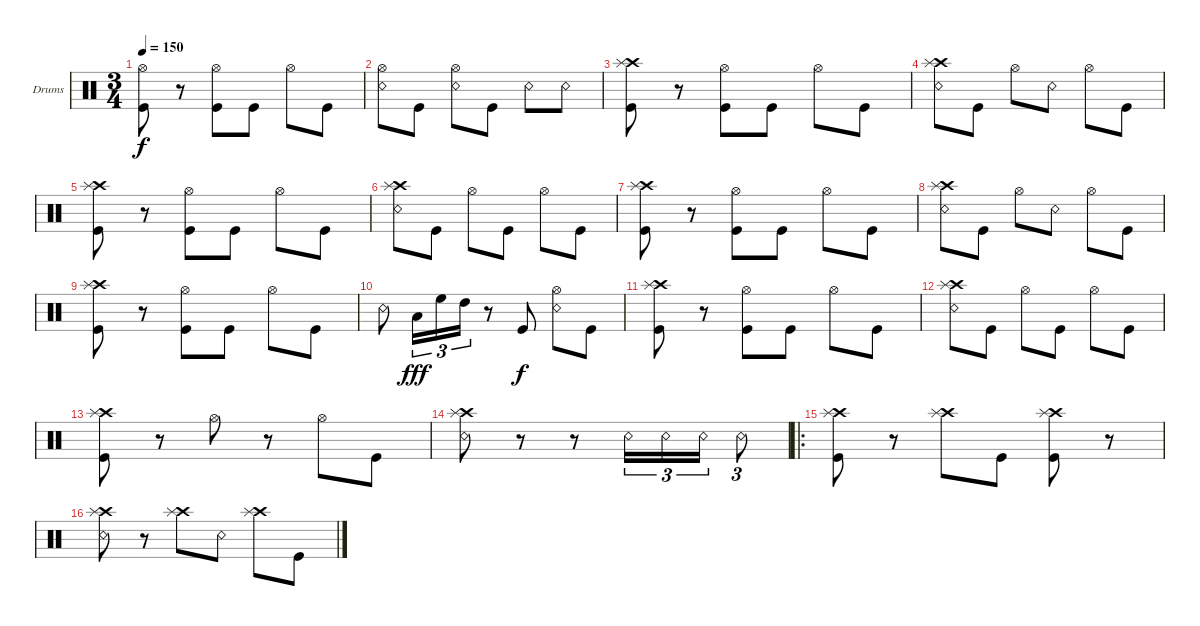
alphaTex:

\defaultSystemsLayout 4
\bracketExtendMode groupsimilarinstruments
\firstSystemTrackNameOrientation horizontal
\otherSystemsTrackNameOrientation horizontal
\track ("Scott" "Drums") {mute instrument percussion}
\staff {score}
\articulation defaults
\ts (3 4)
\tempo 150
\clef neutral
\scale
0.333333
\ks c
("Kick (hit)" "Hi-Hat (open)").8{dy f} r.8 ("Kick (hit)" "Hi-Hat (open)").8 "Kick (hit)".8 "Hi-Hat (open)".8 "Kick (hit)".8 |
\scale
0.333333 ("Snare (rim shot)" "Hi-Hat (open)").8 "Kick (hit)".8 ("Snare (rim shot)" "Hi-Hat (open)").8 "Kick (hit)".8 "Snare (rim shot)".8 "Snare (rim shot)".8 |
\scale
0.333333 ("Kick (hit)" "Crash high (hit)" "Splash (hit)").8 r.8 ("Kick (hit)" "Hi-Hat (open)").8 "Kick (hit)".8 "Hi-Hat (open)".8 "Kick (hit)".8 |
\scale
0.333333 ("Snare (rim shot)" "Crash high (hit)" "Splash (hit)").8 "Kick (hit)".8 "Hi-Hat (open)".8 "Snare (rim shot)".8 "Hi-Hat (open)".8 "Kick (hit)".8 |
\scale
0.333333 ("Kick (hit)" "Crash high (hit)" "Splash (hit)").8 r.8 ("Kick (hit)" "Hi-Hat (open)").8 "Kick (hit)".8 "Hi-Hat (open)".8 "Kick (hit)".8 |
\scale
0.333333 ("Snare (rim shot)" "Crash high (hit)" "Splash (hit)").8 "Kick (hit)".8 "Hi-Hat (open)".8 "Kick (hit)".8 "Hi-Hat (open)".8 "Kick (hit)".8 |
\scale
0.333333 ("Kick (hit)" "Crash high (hit)" "Splash (hit)").8 r.8 ("Kick (hit)" "Hi-Hat (open)").8 "Kick (hit)".8 "Hi-Hat (open)".8 "Kick (hit)".8 |
\scale
0.333333 ("Snare (rim shot)" "Crash high (hit)" "Splash (hit)").8 "Kick (hit)".8 "Hi-Hat (open)".8 "Snare (rim shot)".8 "Hi-Hat (open)".8 "Kick (hit)".8 |
\scale
0.333333 ("Kick (hit)" "Crash high (hit)" "Splash (hit)").8 r.8 ("Kick (hit)" "Hi-Hat (open)").8 "Kick (hit)".8 "Hi-Hat (open)".8 "Kick (hit)".8 |
\scale
0.333333 "Snare (rim shot)".8 "Low Tom (hit)".16{tu (3 2) dy fff} "High Floor Tom (hit)".16{tu (3 2)} "High Tom (hit)".16{tu (3 2)} r.8 "Kick (hit)".8{dy f} ("Snare (rim shot)" "Hi-Hat (open)").8 "Kick (hit)".8 |
\scale
0.333333 ("Kick (hit)" "Crash high (hit)" "Splash (hit)").8 r.8 ("Kick (hit)" "Hi-Hat (open)").8 "Kick (hit)".8 "Hi-Hat (open)".8 "Kick (hit)".8 |
\scale
0.333333 ("Snare (rim shot)" "Crash high (hit)" "Splash (hit)").8 "Kick (hit)".8 "Hi-Hat (open)".8 "Kick (hit)".8 "Hi-Hat (open)".8 "Kick (hit)".8 |
\scale
0.311475 ("Kick (hit)" "Crash high (hit)" "Splash (hit)").8 r.8 "Hi-Hat (open)".8 r.8 "Hi-Hat (open)".8 "Kick (hit)".8 |
\scale
0.311475 ("Snare (rim shot)" "Crash high (hit)" "Splash (hit)").8 r.8 r.8 "Snare (rim shot)".16{tu (3 2)} "Snare (rim shot)".16{tu (3 2)} "Snare (rim shot)".16{tu (3 2)} "Snare (rim shot)".8{tu (3 2)} |
\ro
\scale
0.377049 ("Kick (hit)" "Crash high (hit)" "Splash (hit)").8 r.8 ("Crash high (hit)" "Splash (hit)").8 "Kick (hit)".8 ("Crash high (hit)" "Splash (hit)" "Kick (hit)").8 r.8 |
\scale
0.333333 ("Snare (rim shot)" "Crash high (hit)" "Splash (hit)").8 r.8 ("Crash high (hit)" "Splash (hit)").8 "Snare (rim shot)".8 ("Crash high (hit)" "Splash (hit)").8 "Kick (hit)".8
